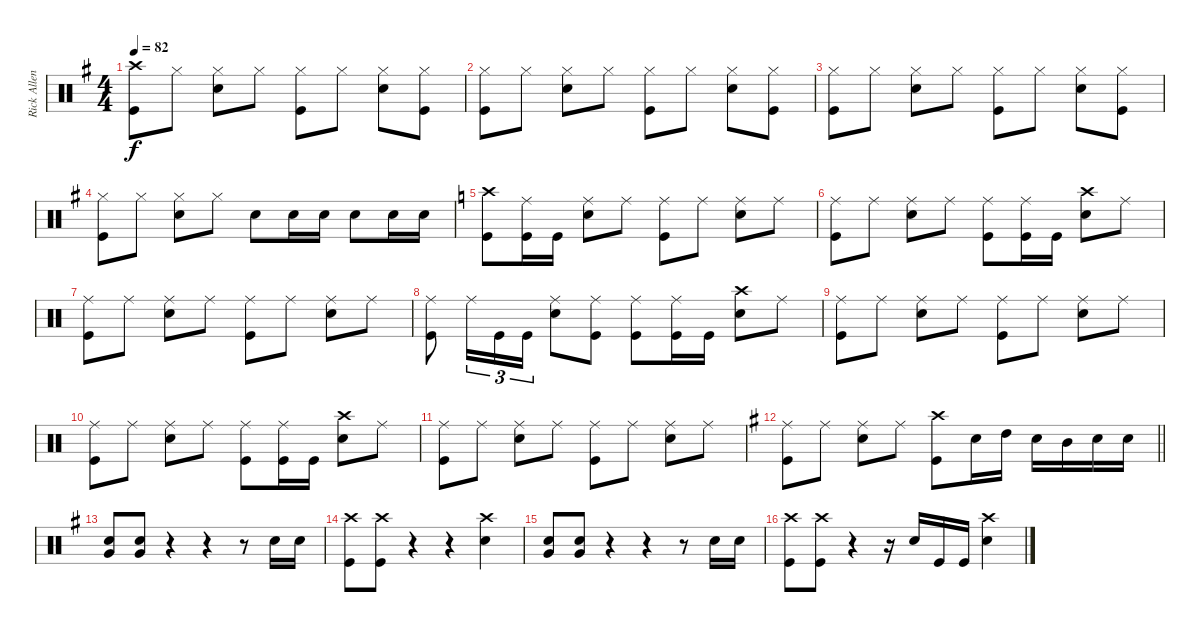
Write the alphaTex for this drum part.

\track ("Rick Allen" "Rick Allen") {instrument percussion}
\staff {score}
\articulation defaults
\ts (4 4)
\tempo 82
\clef neutral
\ks eminor
("Crash high (hit)" "Kick (hit)").8{dy f} "Hi-Hat (closed)".8 ("Hi-Hat (closed)" "Snare (hit) 2").8 "Hi-Hat (closed)".8 ("Hi-Hat (closed)" "Kick (hit)").8 "Hi-Hat (closed)".8 ("Hi-Hat (closed)" "Snare (hit) 2").8 ("Hi-Hat (closed)" "Kick (hit)").8 |
("Hi-Hat (closed)" "Kick (hit)").8 "Hi-Hat (closed)".8 ("Hi-Hat (closed)" "Snare (hit) 2").8 "Hi-Hat (closed)".8 ("Hi-Hat (closed)" "Kick (hit)").8 "Hi-Hat (closed)".8 ("Hi-Hat (closed)" "Snare (hit) 2").8 ("Hi-Hat (closed)" "Kick (hit)").8 |
("Hi-Hat (closed)" "Kick (hit)").8 "Hi-Hat (closed)".8 ("Hi-Hat (closed)" "Snare (hit) 2").8 "Hi-Hat (closed)".8 ("Hi-Hat (closed)" "Kick (hit)").8 "Hi-Hat (closed)".8 ("Hi-Hat (closed)" "Snare (hit) 2").8 ("Hi-Hat (closed)" "Kick (hit)").8 |
("Hi-Hat (closed)" "Kick (hit)").8 "Hi-Hat (closed)".8 ("Hi-Hat (closed)" "Snare (hit) 2").8 "Hi-Hat (closed)".8 "Snare (hit) 2".8 "Snare (hit) 2".16 "Snare (hit) 2".16 "Snare (hit) 2".8 "Snare (hit) 2".16 "Snare (hit) 2".16 |
\ks aminor
("Crash high (hit)" "Kick (hit)").8 ("Ride (middle)" "Kick (hit)").16 "Kick (hit)".16 ("Ride (middle)" "Snare (hit) 2").8 "Ride (middle)".8 ("Ride (middle)" "Kick (hit)").8 "Ride (middle)".8 ("Ride (middle)" "Snare (hit) 2").8 "Ride (middle)".8 |
("Ride (middle)" "Kick (hit)").8 "Ride (middle)".8 ("Ride (middle)" "Snare (hit) 2").8 "Ride (middle)".8 ("Ride (middle)" "Kick (hit)").8 ("Ride (middle)" "Kick (hit)").16 "Kick (hit)".16 ("Crash high (hit)" "Snare (hit) 2").8 "Ride (middle)".8 |
("Ride (middle)" "Kick (hit)").8 "Ride (middle)".8 ("Ride (middle)" "Snare (hit) 2").8 "Ride (middle)".8 ("Ride (middle)" "Kick (hit)").8 "Ride (middle)".8 ("Ride (middle)" "Snare (hit) 2").8 "Ride (middle)".8 |
("Ride (middle)" "Kick (hit)").8 "Ride (middle)".16{tu (3 2)} "Kick (hit)".16{tu (3 2)} "Kick (hit)".16{tu (3 2)} ("Ride (middle)" "Snare (hit) 2").8 ("Ride (middle)" "Kick (hit)").8 ("Ride (middle)" "Kick (hit)").8 ("Ride (middle)" "Kick (hit)").16 "Kick (hit)".16 ("Crash high (hit)" "Snare (hit) 2").8 "Ride (middle)".8 |
("Ride (middle)" "Kick (hit)").8 "Ride (middle)".8 ("Ride (middle)" "Snare (hit) 2").8 "Ride (middle)".8 ("Ride (middle)" "Kick (hit)").8 "Ride (middle)".8 ("Ride (middle)" "Snare (hit) 2").8 "Ride (middle)".8 |
("Ride (middle)" "Kick (hit)").8 "Ride (middle)".8 ("Ride (middle)" "Snare (hit) 2").8 "Ride (middle)".8 ("Ride (middle)" "Kick (hit)").8 ("Ride (middle)" "Kick (hit)").16 "Kick (hit)".16 ("Crash high (hit)" "Snare (hit) 2").8 "Ride (middle)".8 |
("Ride (middle)" "Kick (hit)").8 "Ride (middle)".8 ("Ride (middle)" "Snare (hit) 2").8 "Ride (middle)".8 ("Ride (middle)" "Kick (hit)").8 "Ride (middle)".8 ("Ride (middle)" "Snare (hit) 2").8 "Ride (middle)".8 |
\barLineRight lightlight
\ks eminor
("Ride (middle)" "Kick (hit)").8 "Ride (middle)".8 ("Ride (middle)" "Snare (hit) 2").8 "Ride (middle)".8 ("Crash high (hit)" "Kick (hit)").8 "Snare (hit) 2".16 "High Tom (hit)".16 "Snare (hit) 2".16 "Mid Tom (hit)".16 "Snare (hit) 2".16 "Snare (hit) 2".16 |
("Very Low Tom (hit)" "Snare (hit) 2").8 ("Very Low Tom (hit)" "Snare (hit) 2").8 r.4 r.4 r.8 "Snare (hit) 2".16 "Snare (hit) 2".16 |
("Crash high (hit)" "Kick (hit)").8 ("Crash high (hit)" "Kick (hit)").8 r.4 r.4 ("Crash high (hit)" "Snare (hit) 2").4 |
("Very Low Tom (hit)" "Snare (hit) 2").8 ("Very Low Tom (hit)" "Snare (hit) 2").8 r.4 r.4 r.8 "Snare (hit) 2".16 "Snare (hit) 2".16 |
("Crash high (hit)" "Kick (hit)").8 ("Crash high (hit)" "Kick (hit)").8 r.4 r.16 "Snare (hit) 2".16 "Kick (hit)".16 "Kick (hit)".16 ("Crash high (hit)" "Snare (hit) 2").4
